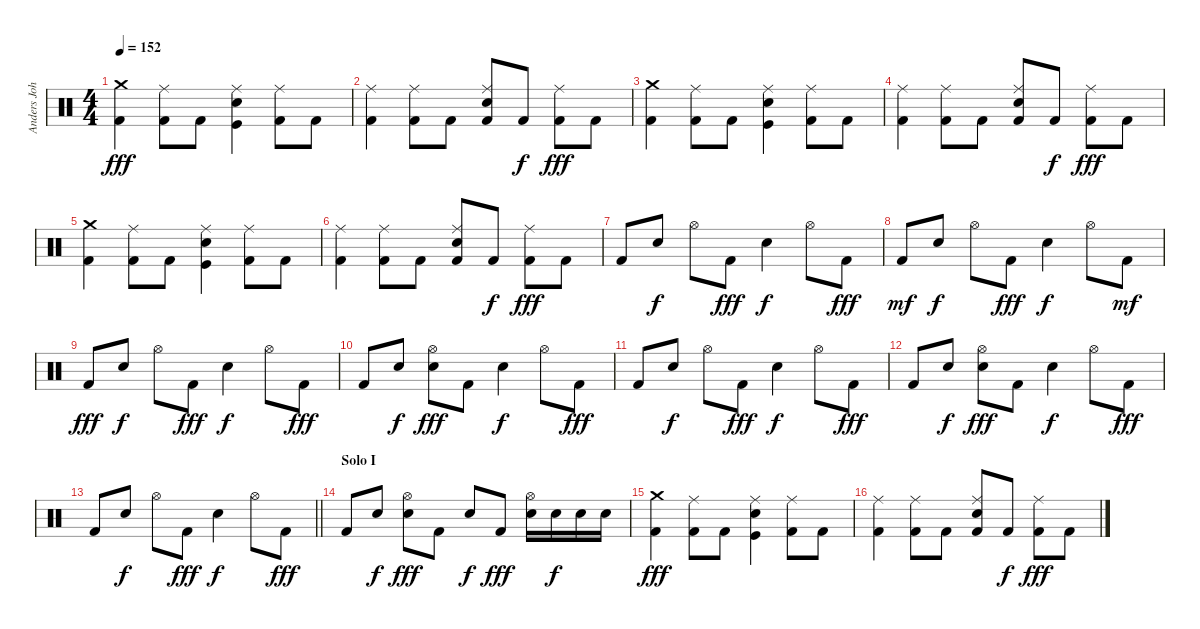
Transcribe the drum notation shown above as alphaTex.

\track ("Anders Johansson (Drums)" "Anders Joh") {instrument percussion}
\staff {score}
\articulation defaults
\ts (4 4)
\tempo 152
\clef neutral
\ks c
("Kick (hit) 2" "Crash medium (hit)").4{dy fff} ("Kick (hit) 2" "Ride (middle)").8 "Kick (hit) 2".8 ("Kick (hit)" "Electric Snare (hit)" "Ride (middle)").4 ("Kick (hit) 2" "Ride (middle)").8 "Kick (hit) 2".8 |
("Kick (hit) 2" "Ride (middle)").4 ("Kick (hit) 2" "Ride (middle)").8 "Kick (hit) 2".8 ("Kick (hit) 2" "Electric Snare (hit)" "Ride (middle)").8 "Kick (hit) 2".8{dy f} ("Kick (hit) 2" "Ride (middle)").8{dy fff} "Kick (hit) 2".8 |
("Kick (hit) 2" "Crash medium (hit)").4 ("Kick (hit) 2" "Ride (middle)").8 "Kick (hit) 2".8 ("Kick (hit)" "Electric Snare (hit)" "Ride (middle)").4 ("Kick (hit) 2" "Ride (middle)").8 "Kick (hit) 2".8 |
("Kick (hit) 2" "Ride (middle)").4 ("Kick (hit) 2" "Ride (middle)").8 "Kick (hit) 2".8 ("Kick (hit) 2" "Electric Snare (hit)" "Ride (middle)").8 "Kick (hit) 2".8{dy f} ("Kick (hit) 2" "Ride (middle)").8{dy fff} "Kick (hit) 2".8 |
("Kick (hit) 2" "Crash medium (hit)").4 ("Kick (hit) 2" "Ride (middle)").8 "Kick (hit) 2".8 ("Kick (hit)" "Electric Snare (hit)" "Ride (middle)").4 ("Kick (hit) 2" "Ride (middle)").8 "Kick (hit) 2".8 |
("Kick (hit) 2" "Ride (middle)").4 ("Kick (hit) 2" "Ride (middle)").8 "Kick (hit) 2".8 ("Kick (hit) 2" "Electric Snare (hit)" "Ride (middle)").8 "Kick (hit) 2".8{dy f} ("Kick (hit) 2" "Ride (middle)").8{dy fff} "Kick (hit) 2".8 |
"Kick (hit) 2".8 "Electric Snare (hit)".8{dy f} "Hi-Hat (open)".8 "Kick (hit) 2".8{dy fff} "Electric Snare (hit)".4{dy f} "Hi-Hat (open)".8 "Kick (hit) 2".8{dy fff} |
"Kick (hit) 2".8{dy mf} "Electric Snare (hit)".8{dy f} "Hi-Hat (open)".8 "Kick (hit) 2".8{dy fff} "Electric Snare (hit)".4{dy f} "Hi-Hat (open)".8 "Kick (hit) 2".8{dy mf} |
"Kick (hit) 2".8{dy fff} "Electric Snare (hit)".8{dy f} "Hi-Hat (open)".8 "Kick (hit) 2".8{dy fff} "Electric Snare (hit)".4{dy f} "Hi-Hat (open)".8 "Kick (hit) 2".8{dy fff} |
"Kick (hit) 2".8 "Electric Snare (hit)".8{dy f} ("Electric Snare (hit)" "Hi-Hat (open)").8{dy fff} "Kick (hit) 2".8 "Electric Snare (hit)".4{dy f} "Hi-Hat (open)".8 "Kick (hit) 2".8{dy fff} |
"Kick (hit) 2".8 "Electric Snare (hit)".8{dy f} "Hi-Hat (open)".8 "Kick (hit) 2".8{dy fff} "Electric Snare (hit)".4{dy f} "Hi-Hat (open)".8 "Kick (hit) 2".8{dy fff} |
"Kick (hit) 2".8 "Electric Snare (hit)".8{dy f} ("Electric Snare (hit)" "Hi-Hat (open)").8{dy fff} "Kick (hit) 2".8 "Electric Snare (hit)".4{dy f} "Hi-Hat (open)".8 "Kick (hit) 2".8{dy fff} |
\barLineRight lightlight "Kick (hit) 2".8 "Electric Snare (hit)".8{dy f} "Hi-Hat (open)".8 "Kick (hit) 2".8{dy fff} "Electric Snare (hit)".4{dy f} "Hi-Hat (open)".8 "Kick (hit) 2".8{dy fff}
|
\section ("" "Solo I")
"Kick (hit) 2".8 "Electric Snare (hit)".8{dy f} ("Electric Snare (hit)" "Hi-Hat (open)").8{dy fff} "Kick (hit) 2".8 "Electric Snare (hit)".8{dy f} "Kick (hit) 2".8{dy fff} ("Electric Snare (hit)" "Hi-Hat (open)").16 "Electric Snare (hit)".16{dy f} "Electric Snare (hit)".16 "Electric Snare (hit)".16 |
("Kick (hit) 2" "Crash medium (hit)").4{dy fff} ("Kick (hit) 2" "Ride (middle)").8 "Kick (hit) 2".8 ("Kick (hit)" "Electric Snare (hit)" "Ride (middle)").4 ("Kick (hit) 2" "Ride (middle)").8 "Kick (hit) 2".8 |
("Kick (hit) 2" "Ride (middle)").4 ("Kick (hit) 2" "Ride (middle)").8 "Kick (hit) 2".8 ("Kick (hit) 2" "Electric Snare (hit)" "Ride (middle)").8 "Kick (hit) 2".8{dy f} ("Kick (hit) 2" "Ride (middle)").8{dy fff} "Kick (hit) 2".8
